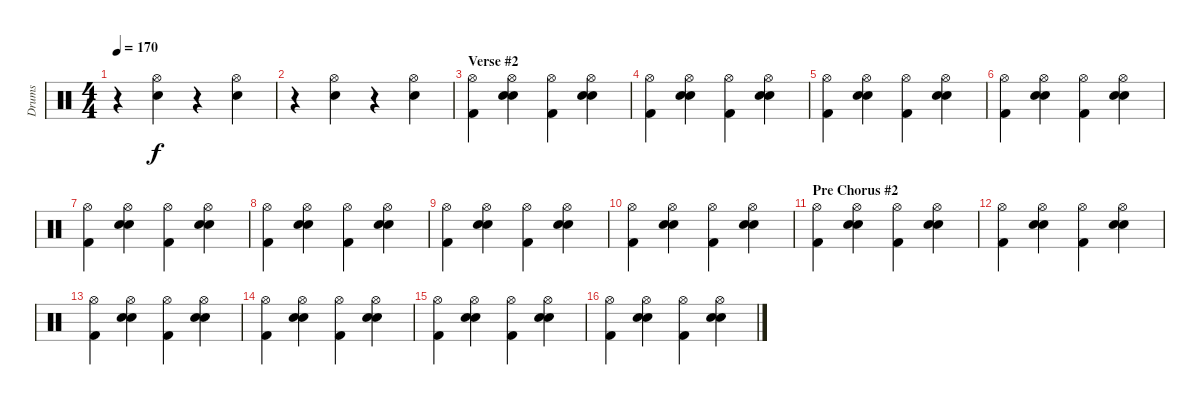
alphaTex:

\track ("Drums" "Drums") {instrument percussion}
\staff {score}
\articulation defaults
\ts (4 4)
\tempo 170
\clef neutral
\ks c
r.4{dy f} ("Hi-Hat (open)" "Hand Clap (hit)").4 r.4 ("Hi-Hat (open)" "Hand Clap (hit)").4 |
r.4 ("Hi-Hat (open)" "Hand Clap (hit)").4 r.4 ("Hi-Hat (open)" "Hand Clap (hit)").4 |
\section ("" "Verse #2")
("Hi-Hat (open)" "Kick (hit) 2").4 ("Hi-Hat (open)" "Electric Snare (hit)" "Hand Clap (hit)").4 ("Hi-Hat (open)" "Kick (hit) 2").4 ("Hi-Hat (open)" "Electric Snare (hit)" "Hand Clap (hit)").4 |
("Hi-Hat (open)" "Kick (hit) 2").4 ("Hi-Hat (open)" "Electric Snare (hit)" "Hand Clap (hit)").4 ("Hi-Hat (open)" "Kick (hit) 2").4 ("Hi-Hat (open)" "Electric Snare (hit)" "Hand Clap (hit)").4 |
("Hi-Hat (open)" "Kick (hit) 2").4 ("Hi-Hat (open)" "Electric Snare (hit)" "Hand Clap (hit)").4 ("Hi-Hat (open)" "Kick (hit) 2").4 ("Hi-Hat (open)" "Electric Snare (hit)" "Hand Clap (hit)").4 |
("Hi-Hat (open)" "Kick (hit) 2").4 ("Hi-Hat (open)" "Electric Snare (hit)" "Hand Clap (hit)").4 ("Hi-Hat (open)" "Kick (hit) 2").4 ("Hi-Hat (open)" "Electric Snare (hit)" "Hand Clap (hit)").4 |
("Hi-Hat (open)" "Kick (hit) 2").4 ("Hi-Hat (open)" "Electric Snare (hit)" "Hand Clap (hit)").4 ("Hi-Hat (open)" "Kick (hit) 2").4 ("Hi-Hat (open)" "Electric Snare (hit)" "Hand Clap (hit)").4 |
("Hi-Hat (open)" "Kick (hit) 2").4 ("Hi-Hat (open)" "Electric Snare (hit)" "Hand Clap (hit)").4 ("Hi-Hat (open)" "Kick (hit) 2").4 ("Hi-Hat (open)" "Electric Snare (hit)" "Hand Clap (hit)").4 |
("Hi-Hat (open)" "Kick (hit) 2").4 ("Hi-Hat (open)" "Electric Snare (hit)" "Hand Clap (hit)").4 ("Hi-Hat (open)" "Kick (hit) 2").4 ("Hi-Hat (open)" "Electric Snare (hit)" "Hand Clap (hit)").4 |
("Hi-Hat (open)" "Kick (hit) 2").4 ("Hi-Hat (open)" "Electric Snare (hit)" "Hand Clap (hit)").4 ("Hi-Hat (open)" "Kick (hit) 2").4 ("Hi-Hat (open)" "Electric Snare (hit)" "Hand Clap (hit)").4 |
\section ("" "Pre Chorus #2")
("Hi-Hat (open)" "Kick (hit) 2").4 ("Hi-Hat (open)" "Electric Snare (hit)" "Hand Clap (hit)").4 ("Hi-Hat (open)" "Kick (hit) 2").4 ("Hi-Hat (open)" "Electric Snare (hit)" "Hand Clap (hit)").4 |
("Hi-Hat (open)" "Kick (hit) 2").4 ("Hi-Hat (open)" "Electric Snare (hit)" "Hand Clap (hit)").4 ("Hi-Hat (open)" "Kick (hit) 2").4 ("Hi-Hat (open)" "Electric Snare (hit)" "Hand Clap (hit)").4 |
("Hi-Hat (open)" "Kick (hit) 2").4 ("Hi-Hat (open)" "Electric Snare (hit)" "Hand Clap (hit)").4 ("Hi-Hat (open)" "Kick (hit) 2").4 ("Hi-Hat (open)" "Electric Snare (hit)" "Hand Clap (hit)").4 |
("Hi-Hat (open)" "Kick (hit) 2").4 ("Hi-Hat (open)" "Electric Snare (hit)" "Hand Clap (hit)").4 ("Hi-Hat (open)" "Kick (hit) 2").4 ("Hi-Hat (open)" "Electric Snare (hit)" "Hand Clap (hit)").4 |
("Hi-Hat (open)" "Kick (hit) 2").4 ("Hi-Hat (open)" "Electric Snare (hit)" "Hand Clap (hit)").4 ("Hi-Hat (open)" "Kick (hit) 2").4 ("Hi-Hat (open)" "Electric Snare (hit)" "Hand Clap (hit)").4 |
("Hi-Hat (open)" "Kick (hit) 2").4 ("Hi-Hat (open)" "Electric Snare (hit)" "Hand Clap (hit)").4 ("Hi-Hat (open)" "Kick (hit) 2").4 ("Hi-Hat (open)" "Electric Snare (hit)" "Hand Clap (hit)").4
